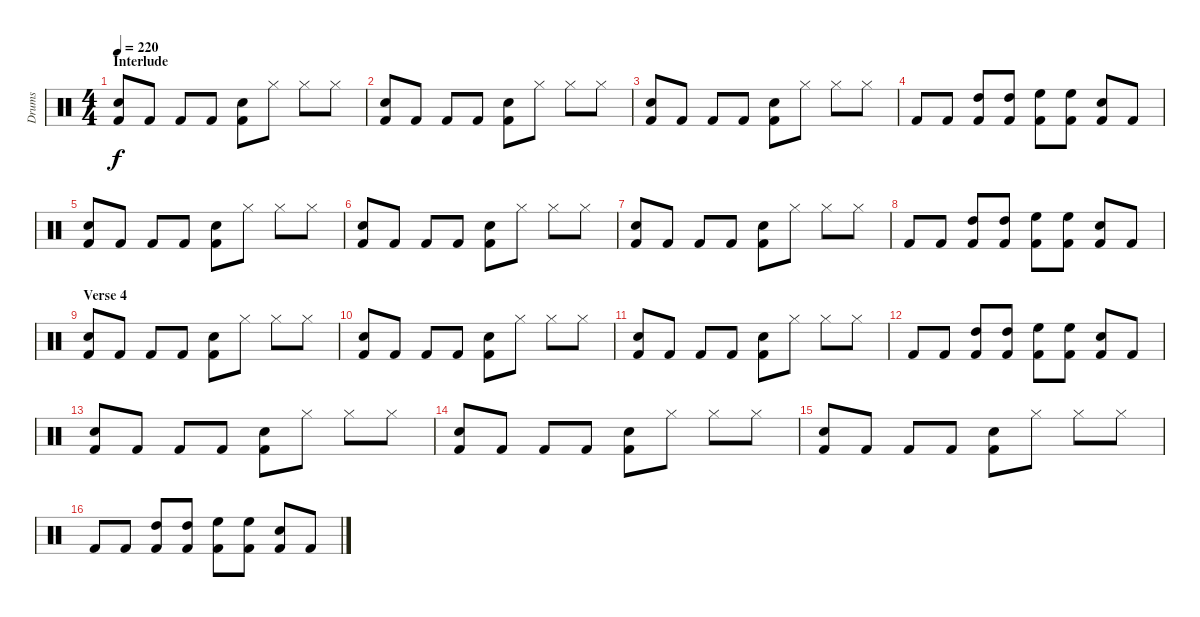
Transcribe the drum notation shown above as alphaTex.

\track ("Drums" "Drums") {instrument percussion}
\staff {score}
\articulation defaults
\ts (4 4)
\section ("" "Interlude")
\tempo 220
\clef neutral
\ks c
("Kick (hit) 2" "Snare (hit) 2").8{dy f} "Kick (hit) 2".8 "Kick (hit) 2".8 "Kick (hit) 2".8 ("Kick (hit) 2" "Snare (hit) 2").8 "Hi-Hat (closed)".8 "Hi-Hat (closed)".8 "Hi-Hat (closed)".8 |
("Kick (hit) 2" "Snare (hit) 2").8 "Kick (hit) 2".8 "Kick (hit) 2".8 "Kick (hit) 2".8 ("Kick (hit) 2" "Snare (hit) 2").8 "Hi-Hat (closed)".8 "Hi-Hat (closed)".8 "Hi-Hat (closed)".8 |
("Kick (hit) 2" "Snare (hit) 2").8 "Kick (hit) 2".8 "Kick (hit) 2".8 "Kick (hit) 2".8 ("Kick (hit) 2" "Snare (hit) 2").8 "Hi-Hat (closed)".8 "Hi-Hat (closed)".8 "Hi-Hat (closed)".8 |
"Kick (hit) 2".8 "Kick (hit) 2".8 ("High Tom (hit)" "Kick (hit) 2").8 ("High Tom (hit)" "Kick (hit) 2").8 ("High Floor Tom (hit)" "Kick (hit) 2").8 ("High Floor Tom (hit)" "Kick (hit) 2").8 ("Snare (hit) 2" "Kick (hit) 2").8 "Kick (hit) 2".8 |
("Kick (hit) 2" "Snare (hit) 2").8 "Kick (hit) 2".8 "Kick (hit) 2".8 "Kick (hit) 2".8 ("Kick (hit) 2" "Snare (hit) 2").8 "Hi-Hat (closed)".8 "Hi-Hat (closed)".8 "Hi-Hat (closed)".8 |
("Kick (hit) 2" "Snare (hit) 2").8 "Kick (hit) 2".8 "Kick (hit) 2".8 "Kick (hit) 2".8 ("Kick (hit) 2" "Snare (hit) 2").8 "Hi-Hat (closed)".8 "Hi-Hat (closed)".8 "Hi-Hat (closed)".8 |
("Kick (hit) 2" "Snare (hit) 2").8 "Kick (hit) 2".8 "Kick (hit) 2".8 "Kick (hit) 2".8 ("Kick (hit) 2" "Snare (hit) 2").8 "Hi-Hat (closed)".8 "Hi-Hat (closed)".8 "Hi-Hat (closed)".8 |
"Kick (hit) 2".8 "Kick (hit) 2".8 ("High Tom (hit)" "Kick (hit) 2").8 ("High Tom (hit)" "Kick (hit) 2").8 ("High Floor Tom (hit)" "Kick (hit) 2").8 ("High Floor Tom (hit)" "Kick (hit) 2").8 ("Snare (hit) 2" "Kick (hit) 2").8 "Kick (hit) 2".8 |
\section ("" "Verse 4")
("Kick (hit) 2" "Snare (hit) 2").8 "Kick (hit) 2".8 "Kick (hit) 2".8 "Kick (hit) 2".8 ("Kick (hit) 2" "Snare (hit) 2").8 "Hi-Hat (closed)".8 "Hi-Hat (closed)".8 "Hi-Hat (closed)".8 |
("Kick (hit) 2" "Snare (hit) 2").8 "Kick (hit) 2".8 "Kick (hit) 2".8 "Kick (hit) 2".8 ("Kick (hit) 2" "Snare (hit) 2").8 "Hi-Hat (closed)".8 "Hi-Hat (closed)".8 "Hi-Hat (closed)".8 |
("Kick (hit) 2" "Snare (hit) 2").8 "Kick (hit) 2".8 "Kick (hit) 2".8 "Kick (hit) 2".8 ("Kick (hit) 2" "Snare (hit) 2").8 "Hi-Hat (closed)".8 "Hi-Hat (closed)".8 "Hi-Hat (closed)".8 |
"Kick (hit) 2".8 "Kick (hit) 2".8 ("High Tom (hit)" "Kick (hit) 2").8 ("High Tom (hit)" "Kick (hit) 2").8 ("High Floor Tom (hit)" "Kick (hit) 2").8 ("High Floor Tom (hit)" "Kick (hit) 2").8 ("Snare (hit) 2" "Kick (hit) 2").8 "Kick (hit) 2".8 |
("Kick (hit) 2" "Snare (hit) 2").8 "Kick (hit) 2".8 "Kick (hit) 2".8 "Kick (hit) 2".8 ("Kick (hit) 2" "Snare (hit) 2").8 "Hi-Hat (closed)".8 "Hi-Hat (closed)".8 "Hi-Hat (closed)".8 |
("Kick (hit) 2" "Snare (hit) 2").8 "Kick (hit) 2".8 "Kick (hit) 2".8 "Kick (hit) 2".8 ("Kick (hit) 2" "Snare (hit) 2").8 "Hi-Hat (closed)".8 "Hi-Hat (closed)".8 "Hi-Hat (closed)".8 |
("Kick (hit) 2" "Snare (hit) 2").8 "Kick (hit) 2".8 "Kick (hit) 2".8 "Kick (hit) 2".8 ("Kick (hit) 2" "Snare (hit) 2").8 "Hi-Hat (closed)".8 "Hi-Hat (closed)".8 "Hi-Hat (closed)".8 |
"Kick (hit) 2".8 "Kick (hit) 2".8 ("High Tom (hit)" "Kick (hit) 2").8 ("High Tom (hit)" "Kick (hit) 2").8 ("High Floor Tom (hit)" "Kick (hit) 2").8 ("High Floor Tom (hit)" "Kick (hit) 2").8 ("Snare (hit) 2" "Kick (hit) 2").8 "Kick (hit) 2".8
